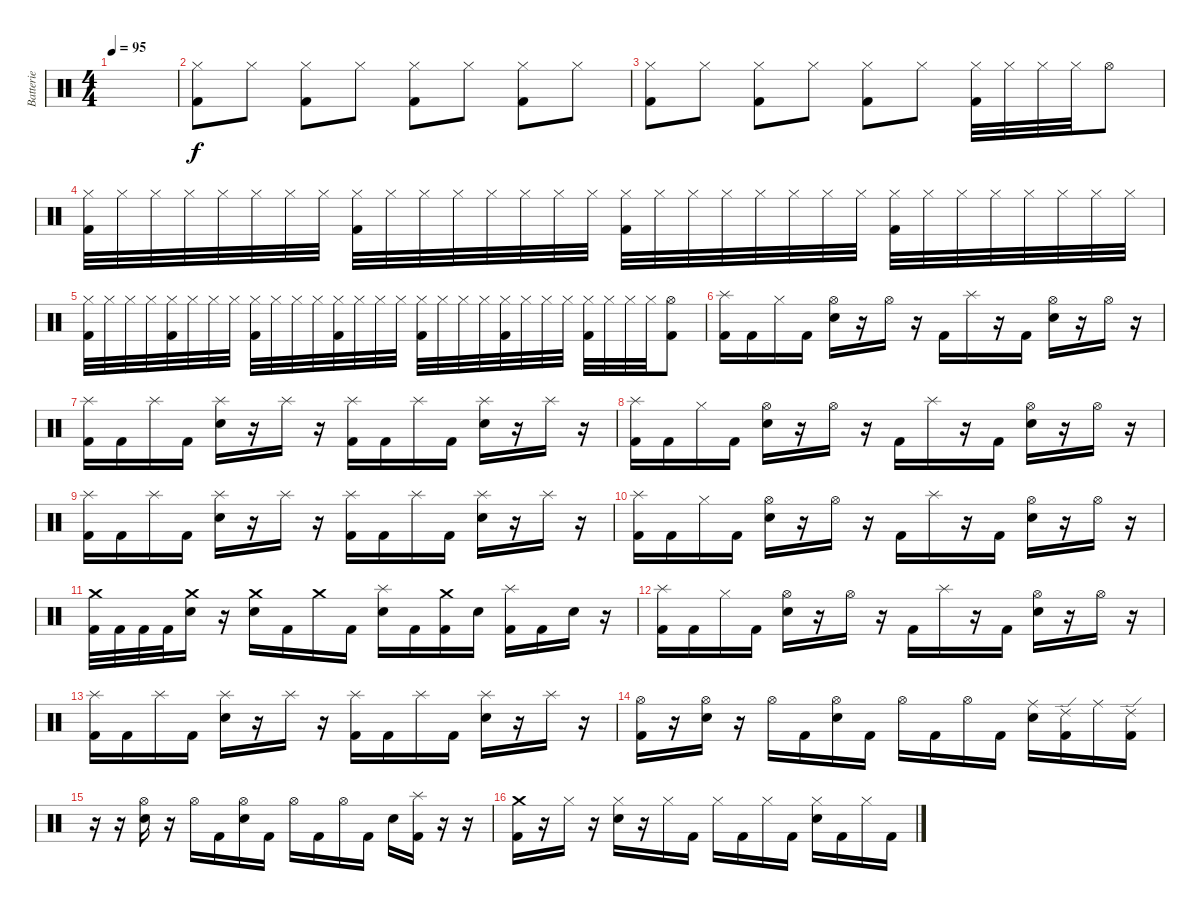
\track ("Batterie" "Batterie") {instrument percussion}
\staff {score}
\articulation defaults
\ts (4 4)
\tempo 95
\clef neutral
\ks c
|
("Hi-Hat (closed)" "Kick (hit) 2").8 "Hi-Hat (closed)".8 ("Hi-Hat (closed)" "Kick (hit) 2").8 "Hi-Hat (closed)".8 ("Hi-Hat (closed)" "Kick (hit) 2").8 "Hi-Hat (closed)".8 ("Hi-Hat (closed)" "Kick (hit) 2").8 "Hi-Hat (closed)".8 |
("Hi-Hat (closed)" "Kick (hit) 2").8 "Hi-Hat (closed)".8 ("Hi-Hat (closed)" "Kick (hit) 2").8 "Hi-Hat (closed)".8 ("Hi-Hat (closed)" "Kick (hit) 2").8 "Hi-Hat (closed)".8 ("Hi-Hat (closed)" "Kick (hit) 2").32 "Hi-Hat (closed)".32 "Hi-Hat (closed)".32 "Hi-Hat (closed)".32 "Hi-Hat (open)".8 |
("Hi-Hat (closed)" "Kick (hit) 2").32 "Hi-Hat (closed)".32 "Hi-Hat (closed)".32 "Hi-Hat (closed)".32 "Hi-Hat (closed)".32 "Hi-Hat (closed)".32 "Hi-Hat (closed)".32 "Hi-Hat (closed)".32 ("Hi-Hat (closed)" "Kick (hit) 2").32 "Hi-Hat (closed)".32 "Hi-Hat (closed)".32 "Hi-Hat (closed)".32 "Hi-Hat (closed)".32 "Hi-Hat (closed)".32 "Hi-Hat (closed)".32 "Hi-Hat (closed)".32 ("Hi-Hat (closed)" "Kick (hit) 2").32 "Hi-Hat (closed)".32 "Hi-Hat (closed)".32 "Hi-Hat (closed)".32 "Hi-Hat (closed)".32 "Hi-Hat (closed)".32 "Hi-Hat (closed)".32 "Hi-Hat (closed)".32 ("Hi-Hat (closed)" "Kick (hit) 2").32 "Hi-Hat (closed)".32 "Hi-Hat (closed)".32 "Hi-Hat (closed)".32 "Hi-Hat (closed)".32 "Hi-Hat (closed)".32 "Hi-Hat (closed)".32 "Hi-Hat (closed)".32 |
("Hi-Hat (closed)" "Kick (hit) 2").32 "Hi-Hat (closed)".32 "Hi-Hat (closed)".32 "Hi-Hat (closed)".32 ("Hi-Hat (closed)" "Kick (hit) 2").32 "Hi-Hat (closed)".32 "Hi-Hat (closed)".32 "Hi-Hat (closed)".32 ("Hi-Hat (closed)" "Kick (hit) 2").32 "Hi-Hat (closed)".32 "Hi-Hat (closed)".32 "Hi-Hat (closed)".32 ("Hi-Hat (closed)" "Kick (hit) 2").32 "Hi-Hat (closed)".32 "Hi-Hat (closed)".32 "Hi-Hat (closed)".32 ("Hi-Hat (closed)" "Kick (hit) 2").32 "Hi-Hat (closed)".32 "Hi-Hat (closed)".32 "Hi-Hat (closed)".32 ("Hi-Hat (closed)" "Kick (hit) 2").32 "Hi-Hat (closed)".32 "Hi-Hat (closed)".32 "Hi-Hat (closed)".32 ("Hi-Hat (closed)" "Kick (hit) 2").32 "Hi-Hat (closed)".32 "Hi-Hat (closed)".32 "Hi-Hat (closed)".32 ("Hi-Hat (open)" "Kick (hit) 2").8 |
("Splash (hit)" "Kick (hit) 2").16 "Kick (hit) 2".16 "Hi-Hat (closed)".16 "Kick (hit) 2".16 ("Hi-Hat (open)" "Electric Snare (hit)").16 r.16 "Hi-Hat (open)".16 r.16 "Kick (hit) 2".16 "Splash (hit)".16 r.16 "Kick (hit) 2".16 ("Hi-Hat (open)" "Electric Snare (hit)").16 r.16 "Hi-Hat (open)".16 r.16 |
("Splash (hit)" "Kick (hit) 2").16 "Kick (hit) 2".16 "Splash (hit)".16 "Kick (hit) 2".16 ("Splash (hit)" "Electric Snare (hit)").16 r.16 "Splash (hit)".16 r.16 ("Splash (hit)" "Kick (hit) 2").16 "Kick (hit) 2".16 "Splash (hit)".16 "Kick (hit) 2".16 ("Splash (hit)" "Electric Snare (hit)").16 r.16 "Splash (hit)".16 r.16 |
("Splash (hit)" "Kick (hit) 2").16 "Kick (hit) 2".16 "Hi-Hat (closed)".16 "Kick (hit) 2".16 ("Hi-Hat (open)" "Electric Snare (hit)").16 r.16 "Hi-Hat (open)".16 r.16 "Kick (hit) 2".16 "Splash (hit)".16 r.16 "Kick (hit) 2".16 ("Hi-Hat (open)" "Electric Snare (hit)").16 r.16 "Hi-Hat (open)".16 r.16 |
("Splash (hit)" "Kick (hit) 2").16 "Kick (hit) 2".16 "Splash (hit)".16 "Kick (hit) 2".16 ("Splash (hit)" "Electric Snare (hit)").16 r.16 "Splash (hit)".16 r.16 ("Splash (hit)" "Kick (hit) 2").16 "Kick (hit) 2".16 "Splash (hit)".16 "Kick (hit) 2".16 ("Splash (hit)" "Electric Snare (hit)").16 r.16 "Splash (hit)".16 r.16 |
("Splash (hit)" "Kick (hit) 2").16 "Kick (hit) 2".16 "Hi-Hat (closed)".16 "Kick (hit) 2".16 ("Hi-Hat (open)" "Electric Snare (hit)").16 r.16 "Hi-Hat (open)".16 r.16 "Kick (hit) 2".16 "Splash (hit)".16 r.16 "Kick (hit) 2".16 ("Hi-Hat (open)" "Electric Snare (hit)").16 r.16 "Hi-Hat (open)".16 r.16 |
("Crash medium (hit)" "Kick (hit) 2").32 "Kick (hit) 2".32 "Kick (hit) 2".32 "Kick (hit) 2".32 ("Crash medium (hit)" "Electric Snare (hit)").16 r.16 ("Crash medium (hit)" "Electric Snare (hit)").16 "Kick (hit) 2".16 "Crash medium (hit)".16 "Kick (hit) 2".16 ("Splash (hit)" "Electric Snare (hit)").16 "Kick (hit) 2".16 ("Crash medium (hit)" "Kick (hit) 2").16 "Electric Snare (hit)".16 ("Splash (hit)" "Kick (hit) 2").16 "Kick (hit) 2".16 "Electric Snare (hit)".16 r.16 |
("Splash (hit)" "Kick (hit) 2").16 "Kick (hit) 2".16 "Hi-Hat (closed)".16 "Kick (hit) 2".16 ("Hi-Hat (open)" "Electric Snare (hit)").16 r.16 "Hi-Hat (open)".16 r.16 "Kick (hit) 2".16 "Splash (hit)".16 r.16 "Kick (hit) 2".16 ("Hi-Hat (open)" "Electric Snare (hit)").16 r.16 "Hi-Hat (open)".16 r.16 |
("Splash (hit)" "Kick (hit) 2").16 "Kick (hit) 2".16 "Splash (hit)".16 "Kick (hit) 2".16 ("Splash (hit)" "Electric Snare (hit)").16 r.16 "Splash (hit)".16 r.16 ("Splash (hit)" "Kick (hit) 2").16 "Kick (hit) 2".16 "Splash (hit)".16 "Kick (hit) 2".16 ("Splash (hit)" "Electric Snare (hit)").16 r.16 "Splash (hit)".16 r.16 |
("Hi-Hat (open)" "Kick (hit) 2").16 r.16 ("Hi-Hat (open)" "Electric Snare (hit)").16 r.16 "Hi-Hat (open)".16 "Kick (hit) 2".16 ("Hi-Hat (open)" "Electric Snare (hit)").16 "Kick (hit) 2".16 "Hi-Hat (open)".16 "Kick (hit) 2".16 "Hi-Hat (open)".16 "Kick (hit) 2".16 ("Ride (middle)" "Electric Snare (hit)").16 ("Ride (edge) 2" "Kick (hit) 2").16 "Ride (middle)".16 ("Ride (edge) 2" "Kick (hit) 2").16 |
r.16 r.16 ("Hi-Hat (open)" "Electric Snare (hit)").16 r.16 "Hi-Hat (open)".16 "Kick (hit) 2".16 ("Hi-Hat (open)" "Electric Snare (hit)").16 "Kick (hit) 2".16 "Hi-Hat (open)".16 "Kick (hit) 2".16 "Hi-Hat (open)".16 "Kick (hit) 2".16 "Electric Snare (hit)".16 ("Splash (hit)" "Kick (hit) 2").16 r.16 r.16 |
("Crash medium (hit)" "Kick (hit) 2").16 r.16 "Hi-Hat (closed)".16 r.16 ("Hi-Hat (closed)" "Electric Snare (hit)").16 r.16 "Hi-Hat (closed)".16 "Kick (hit) 2".16 "Hi-Hat (closed)".16 "Kick (hit) 2".16 "Hi-Hat (closed)".16 "Kick (hit) 2".16 ("Hi-Hat (closed)" "Electric Snare (hit)").16 "Kick (hit) 2".16 "Hi-Hat (closed)".16 "Kick (hit) 2".16
